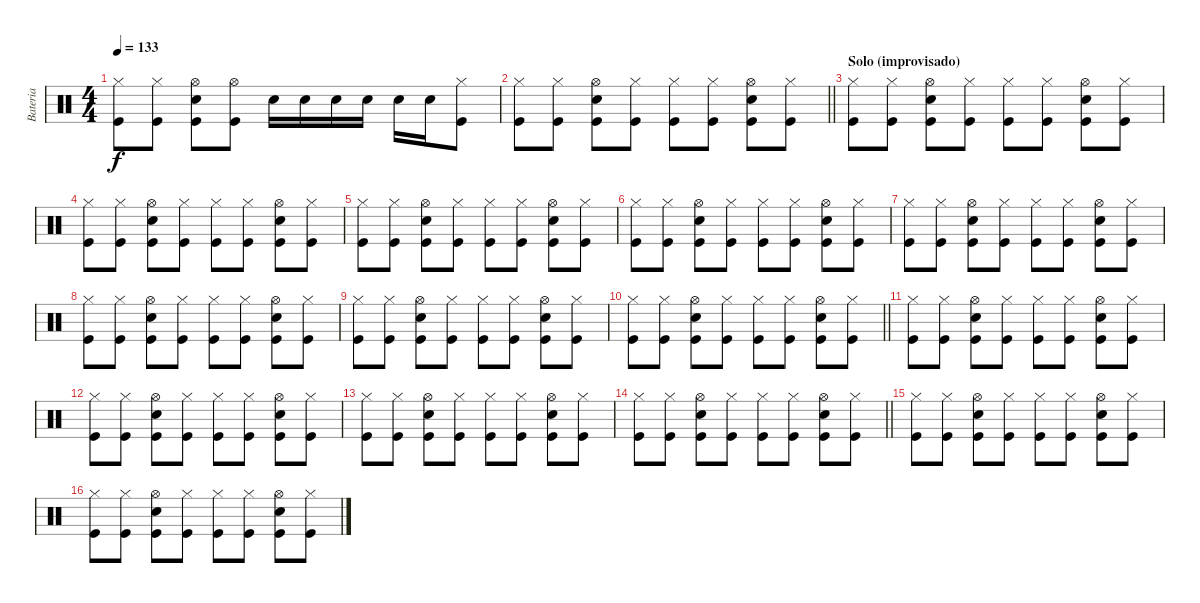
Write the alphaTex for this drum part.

\track ("Bateria" "Bateria") {instrument percussion}
\staff
\articulation defaults
\ts (4 4)
\tempo 133
\clef neutral
\ks c
("Hi-Hat (closed)" "Kick (hit)").8{dy f} ("Hi-Hat (closed)" "Kick (hit)").8 ("Hi-Hat (open)" "Kick (hit)" "Snare (hit) 2").8 ("Hi-Hat (open)" "Kick (hit)").8 "Snare (hit) 2".16 "Snare (hit) 2".16 "Snare (hit) 2".16 "Snare (hit) 2".16 "Snare (hit) 2".16 "Snare (hit) 2".16 ("Hi-Hat (closed)" "Kick (hit)").8 |
\barLineRight lightlight
("Hi-Hat (closed)" "Kick (hit)").8 ("Hi-Hat (closed)" "Kick (hit)").8 ("Hi-Hat (open)" "Kick (hit)" "Snare (hit) 2").8 ("Hi-Hat (closed)" "Kick (hit)").8 ("Hi-Hat (closed)" "Kick (hit)").8 ("Hi-Hat (closed)" "Kick (hit)").8 ("Hi-Hat (open)" "Kick (hit)" "Snare (hit) 2").8 ("Hi-Hat (closed)" "Kick (hit)").8 |
\section ("" "Solo (improvisado)")
("Hi-Hat (closed)" "Kick (hit)").8 ("Hi-Hat (closed)" "Kick (hit)").8 ("Hi-Hat (open)" "Kick (hit)" "Snare (hit) 2").8 ("Hi-Hat (closed)" "Kick (hit)").8 ("Hi-Hat (closed)" "Kick (hit)").8 ("Hi-Hat (closed)" "Kick (hit)").8 ("Hi-Hat (open)" "Kick (hit)" "Snare (hit) 2").8 ("Hi-Hat (closed)" "Kick (hit)").8 |
("Hi-Hat (closed)" "Kick (hit)").8 ("Hi-Hat (closed)" "Kick (hit)").8 ("Hi-Hat (open)" "Kick (hit)" "Snare (hit) 2").8 ("Hi-Hat (closed)" "Kick (hit)").8 ("Hi-Hat (closed)" "Kick (hit)").8 ("Hi-Hat (closed)" "Kick (hit)").8 ("Hi-Hat (open)" "Kick (hit)" "Snare (hit) 2").8 ("Hi-Hat (closed)" "Kick (hit)").8 |
("Hi-Hat (closed)" "Kick (hit)").8 ("Hi-Hat (closed)" "Kick (hit)").8 ("Hi-Hat (open)" "Kick (hit)" "Snare (hit) 2").8 ("Hi-Hat (closed)" "Kick (hit)").8 ("Hi-Hat (closed)" "Kick (hit)").8 ("Hi-Hat (closed)" "Kick (hit)").8 ("Hi-Hat (open)" "Kick (hit)" "Snare (hit) 2").8 ("Hi-Hat (closed)" "Kick (hit)").8 |
("Hi-Hat (closed)" "Kick (hit)").8 ("Hi-Hat (closed)" "Kick (hit)").8 ("Hi-Hat (open)" "Kick (hit)" "Snare (hit) 2").8 ("Hi-Hat (closed)" "Kick (hit)").8 ("Hi-Hat (closed)" "Kick (hit)").8 ("Hi-Hat (closed)" "Kick (hit)").8 ("Hi-Hat (open)" "Kick (hit)" "Snare (hit) 2").8 ("Hi-Hat (closed)" "Kick (hit)").8 |
("Hi-Hat (closed)" "Kick (hit)").8 ("Hi-Hat (closed)" "Kick (hit)").8 ("Hi-Hat (open)" "Kick (hit)" "Snare (hit) 2").8 ("Hi-Hat (closed)" "Kick (hit)").8 ("Hi-Hat (closed)" "Kick (hit)").8 ("Hi-Hat (closed)" "Kick (hit)").8 ("Hi-Hat (open)" "Kick (hit)" "Snare (hit) 2").8 ("Hi-Hat (closed)" "Kick (hit)").8 |
("Hi-Hat (closed)" "Kick (hit)").8 ("Hi-Hat (closed)" "Kick (hit)").8 ("Hi-Hat (open)" "Kick (hit)" "Snare (hit) 2").8 ("Hi-Hat (closed)" "Kick (hit)").8 ("Hi-Hat (closed)" "Kick (hit)").8 ("Hi-Hat (closed)" "Kick (hit)").8 ("Hi-Hat (open)" "Kick (hit)" "Snare (hit) 2").8 ("Hi-Hat (closed)" "Kick (hit)").8 |
("Hi-Hat (closed)" "Kick (hit)").8 ("Hi-Hat (closed)" "Kick (hit)").8 ("Hi-Hat (open)" "Kick (hit)" "Snare (hit) 2").8 ("Hi-Hat (closed)" "Kick (hit)").8 ("Hi-Hat (closed)" "Kick (hit)").8 ("Hi-Hat (closed)" "Kick (hit)").8 ("Hi-Hat (open)" "Kick (hit)" "Snare (hit) 2").8 ("Hi-Hat (closed)" "Kick (hit)").8 |
\barLineRight lightlight
("Hi-Hat (closed)" "Kick (hit)").8 ("Hi-Hat (closed)" "Kick (hit)").8 ("Hi-Hat (open)" "Kick (hit)" "Snare (hit) 2").8 ("Hi-Hat (closed)" "Kick (hit)").8 ("Hi-Hat (closed)" "Kick (hit)").8 ("Hi-Hat (closed)" "Kick (hit)").8 ("Hi-Hat (open)" "Kick (hit)" "Snare (hit) 2").8 ("Hi-Hat (closed)" "Kick (hit)").8 |
("Hi-Hat (closed)" "Kick (hit)").8 ("Hi-Hat (closed)" "Kick (hit)").8 ("Hi-Hat (open)" "Kick (hit)" "Snare (hit) 2").8 ("Hi-Hat (closed)" "Kick (hit)").8 ("Hi-Hat (closed)" "Kick (hit)").8 ("Hi-Hat (closed)" "Kick (hit)").8 ("Hi-Hat (open)" "Kick (hit)" "Snare (hit) 2").8 ("Hi-Hat (closed)" "Kick (hit)").8 |
("Hi-Hat (closed)" "Kick (hit)").8 ("Hi-Hat (closed)" "Kick (hit)").8 ("Hi-Hat (open)" "Kick (hit)" "Snare (hit) 2").8 ("Hi-Hat (closed)" "Kick (hit)").8 ("Hi-Hat (closed)" "Kick (hit)").8 ("Hi-Hat (closed)" "Kick (hit)").8 ("Hi-Hat (open)" "Kick (hit)" "Snare (hit) 2").8 ("Hi-Hat (closed)" "Kick (hit)").8 |
("Hi-Hat (closed)" "Kick (hit)").8 ("Hi-Hat (closed)" "Kick (hit)").8 ("Hi-Hat (open)" "Kick (hit)" "Snare (hit) 2").8 ("Hi-Hat (closed)" "Kick (hit)").8 ("Hi-Hat (closed)" "Kick (hit)").8 ("Hi-Hat (closed)" "Kick (hit)").8 ("Hi-Hat (open)" "Kick (hit)" "Snare (hit) 2").8 ("Hi-Hat (closed)" "Kick (hit)").8 |
\barLineRight lightlight
("Hi-Hat (closed)" "Kick (hit)").8 ("Hi-Hat (closed)" "Kick (hit)").8 ("Hi-Hat (open)" "Kick (hit)" "Snare (hit) 2").8 ("Hi-Hat (closed)" "Kick (hit)").8 ("Hi-Hat (closed)" "Kick (hit)").8 ("Hi-Hat (closed)" "Kick (hit)").8 ("Hi-Hat (open)" "Kick (hit)" "Snare (hit) 2").8 ("Hi-Hat (closed)" "Kick (hit)").8 |
("Hi-Hat (closed)" "Kick (hit)").8 ("Hi-Hat (closed)" "Kick (hit)").8 ("Hi-Hat (open)" "Kick (hit)" "Snare (hit) 2").8 ("Hi-Hat (closed)" "Kick (hit)").8 ("Hi-Hat (closed)" "Kick (hit)").8 ("Hi-Hat (closed)" "Kick (hit)").8 ("Hi-Hat (open)" "Kick (hit)" "Snare (hit) 2").8 ("Hi-Hat (closed)" "Kick (hit)").8 |
("Hi-Hat (closed)" "Kick (hit)").8 ("Hi-Hat (closed)" "Kick (hit)").8 ("Hi-Hat (open)" "Kick (hit)" "Snare (hit) 2").8 ("Hi-Hat (closed)" "Kick (hit)").8 ("Hi-Hat (closed)" "Kick (hit)").8 ("Hi-Hat (closed)" "Kick (hit)").8 ("Hi-Hat (open)" "Kick (hit)" "Snare (hit) 2").8 ("Hi-Hat (closed)" "Kick (hit)").8
